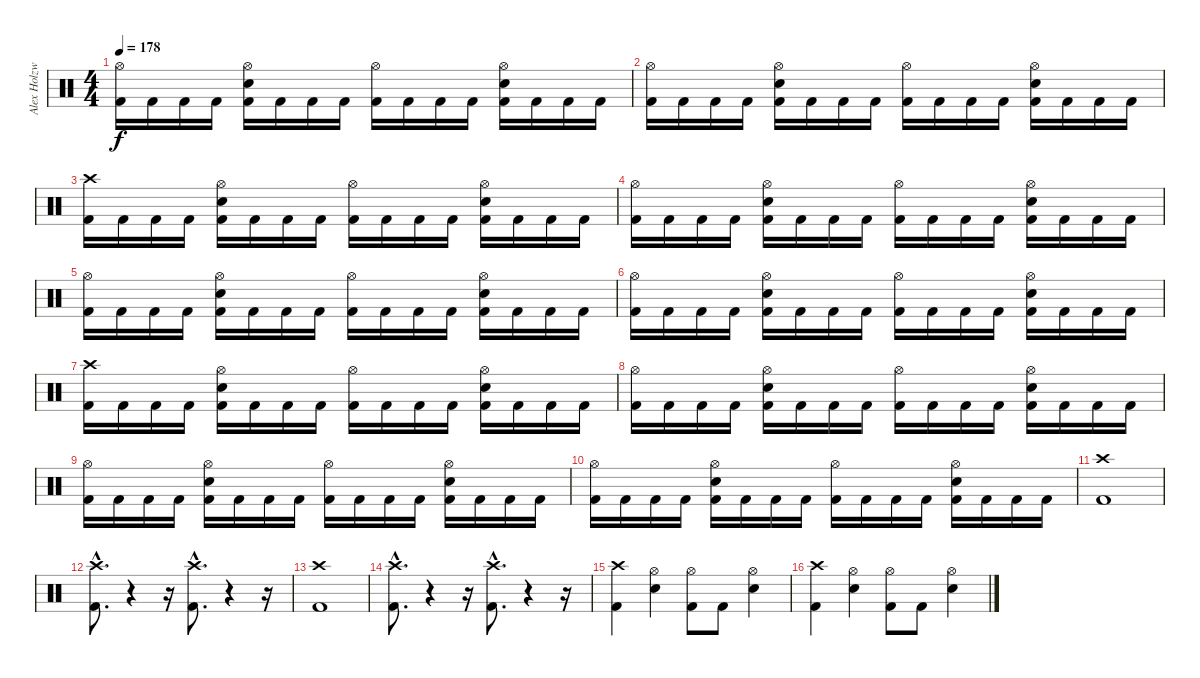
\track ("Alex Holzwarth" "Alex Holzw") {instrument percussion}
\staff {score}
\articulation defaults
\ts (4 4)
\tempo 178
\clef neutral
\ks c
("Hi-Hat (open)" "Kick (hit) 2").16{dy f} "Kick (hit) 2".16 "Kick (hit) 2".16 "Kick (hit) 2".16 ("Hi-Hat (open)" "Electric Snare (hit)" "Kick (hit) 2").16 "Kick (hit) 2".16 "Kick (hit) 2".16 "Kick (hit) 2".16 ("Hi-Hat (open)" "Kick (hit) 2").16 "Kick (hit) 2".16 "Kick (hit) 2".16 "Kick (hit) 2".16 ("Hi-Hat (open)" "Electric Snare (hit)" "Kick (hit) 2").16 "Kick (hit) 2".16 "Kick (hit) 2".16 "Kick (hit) 2".16 |
("Hi-Hat (open)" "Kick (hit) 2").16 "Kick (hit) 2".16 "Kick (hit) 2".16 "Kick (hit) 2".16 ("Hi-Hat (open)" "Electric Snare (hit)" "Kick (hit) 2").16 "Kick (hit) 2".16 "Kick (hit) 2".16 "Kick (hit) 2".16 ("Hi-Hat (open)" "Kick (hit) 2").16 "Kick (hit) 2".16 "Kick (hit) 2".16 "Kick (hit) 2".16 ("Hi-Hat (open)" "Electric Snare (hit)" "Kick (hit) 2").16 "Kick (hit) 2".16 "Kick (hit) 2".16 "Kick (hit) 2".16 |
("Crash high (hit)" "Kick (hit) 2").16 "Kick (hit) 2".16 "Kick (hit) 2".16 "Kick (hit) 2".16 ("Hi-Hat (open)" "Electric Snare (hit)" "Kick (hit) 2").16 "Kick (hit) 2".16 "Kick (hit) 2".16 "Kick (hit) 2".16 ("Hi-Hat (open)" "Kick (hit) 2").16 "Kick (hit) 2".16 "Kick (hit) 2".16 "Kick (hit) 2".16 ("Hi-Hat (open)" "Electric Snare (hit)" "Kick (hit) 2").16 "Kick (hit) 2".16 "Kick (hit) 2".16 "Kick (hit) 2".16 |
("Hi-Hat (open)" "Kick (hit) 2").16 "Kick (hit) 2".16 "Kick (hit) 2".16 "Kick (hit) 2".16 ("Hi-Hat (open)" "Electric Snare (hit)" "Kick (hit) 2").16 "Kick (hit) 2".16 "Kick (hit) 2".16 "Kick (hit) 2".16 ("Hi-Hat (open)" "Kick (hit) 2").16 "Kick (hit) 2".16 "Kick (hit) 2".16 "Kick (hit) 2".16 ("Hi-Hat (open)" "Electric Snare (hit)" "Kick (hit) 2").16 "Kick (hit) 2".16 "Kick (hit) 2".16 "Kick (hit) 2".16 |
("Hi-Hat (open)" "Kick (hit) 2").16 "Kick (hit) 2".16 "Kick (hit) 2".16 "Kick (hit) 2".16 ("Hi-Hat (open)" "Electric Snare (hit)" "Kick (hit) 2").16 "Kick (hit) 2".16 "Kick (hit) 2".16 "Kick (hit) 2".16 ("Hi-Hat (open)" "Kick (hit) 2").16 "Kick (hit) 2".16 "Kick (hit) 2".16 "Kick (hit) 2".16 ("Hi-Hat (open)" "Electric Snare (hit)" "Kick (hit) 2").16 "Kick (hit) 2".16 "Kick (hit) 2".16 "Kick (hit) 2".16 |
("Hi-Hat (open)" "Kick (hit) 2").16 "Kick (hit) 2".16 "Kick (hit) 2".16 "Kick (hit) 2".16 ("Hi-Hat (open)" "Electric Snare (hit)" "Kick (hit) 2").16 "Kick (hit) 2".16 "Kick (hit) 2".16 "Kick (hit) 2".16 ("Hi-Hat (open)" "Kick (hit) 2").16 "Kick (hit) 2".16 "Kick (hit) 2".16 "Kick (hit) 2".16 ("Hi-Hat (open)" "Electric Snare (hit)" "Kick (hit) 2").16 "Kick (hit) 2".16 "Kick (hit) 2".16 "Kick (hit) 2".16 |
("Crash high (hit)" "Kick (hit) 2").16 "Kick (hit) 2".16 "Kick (hit) 2".16 "Kick (hit) 2".16 ("Hi-Hat (open)" "Electric Snare (hit)" "Kick (hit) 2").16 "Kick (hit) 2".16 "Kick (hit) 2".16 "Kick (hit) 2".16 ("Hi-Hat (open)" "Kick (hit) 2").16 "Kick (hit) 2".16 "Kick (hit) 2".16 "Kick (hit) 2".16 ("Hi-Hat (open)" "Electric Snare (hit)" "Kick (hit) 2").16 "Kick (hit) 2".16 "Kick (hit) 2".16 "Kick (hit) 2".16 |
("Hi-Hat (open)" "Kick (hit) 2").16 "Kick (hit) 2".16 "Kick (hit) 2".16 "Kick (hit) 2".16 ("Hi-Hat (open)" "Electric Snare (hit)" "Kick (hit) 2").16 "Kick (hit) 2".16 "Kick (hit) 2".16 "Kick (hit) 2".16 ("Hi-Hat (open)" "Kick (hit) 2").16 "Kick (hit) 2".16 "Kick (hit) 2".16 "Kick (hit) 2".16 ("Hi-Hat (open)" "Electric Snare (hit)" "Kick (hit) 2").16 "Kick (hit) 2".16 "Kick (hit) 2".16 "Kick (hit) 2".16 |
("Hi-Hat (open)" "Kick (hit) 2").16 "Kick (hit) 2".16 "Kick (hit) 2".16 "Kick (hit) 2".16 ("Hi-Hat (open)" "Electric Snare (hit)" "Kick (hit) 2").16 "Kick (hit) 2".16 "Kick (hit) 2".16 "Kick (hit) 2".16 ("Hi-Hat (open)" "Kick (hit) 2").16 "Kick (hit) 2".16 "Kick (hit) 2".16 "Kick (hit) 2".16 ("Hi-Hat (open)" "Electric Snare (hit)" "Kick (hit) 2").16 "Kick (hit) 2".16 "Kick (hit) 2".16 "Kick (hit) 2".16 |
("Hi-Hat (open)" "Kick (hit) 2").16 "Kick (hit) 2".16 "Kick (hit) 2".16 "Kick (hit) 2".16 ("Hi-Hat (open)" "Electric Snare (hit)" "Kick (hit) 2").16 "Kick (hit) 2".16 "Kick (hit) 2".16 "Kick (hit) 2".16 ("Hi-Hat (open)" "Kick (hit) 2").16 "Kick (hit) 2".16 "Kick (hit) 2".16 "Kick (hit) 2".16 ("Hi-Hat (open)" "Electric Snare (hit)" "Kick (hit) 2").16 "Kick (hit) 2".16 "Kick (hit) 2".16 "Kick (hit) 2".16 |
("Crash high (hit)" "Kick (hit) 2").1 |
("Crash high (hit)"{hac} "Kick (hit) 2"{hac}).8{d} r.4 r.16 ("Crash high (hit)"{hac} "Kick (hit) 2"{hac}).8{d} r.4 r.16 |
("Crash high (hit)" "Kick (hit) 2").1 |
("Crash high (hit)"{hac} "Kick (hit) 2"{hac}).8{d} r.4 r.16 ("Crash high (hit)"{hac} "Kick (hit) 2"{hac}).8{d} r.4 r.16 |
("Crash high (hit)" "Kick (hit) 2").4 ("Hi-Hat (open)" "Electric Snare (hit)").4 ("Hi-Hat (open)" "Kick (hit) 2").8 "Kick (hit) 2".8 ("Hi-Hat (open)" "Electric Snare (hit)").4 |
("Crash high (hit)" "Kick (hit) 2").4 ("Hi-Hat (open)" "Electric Snare (hit)").4 ("Hi-Hat (open)" "Kick (hit) 2").8 "Kick (hit) 2".8 ("Hi-Hat (open)" "Electric Snare (hit)").4
